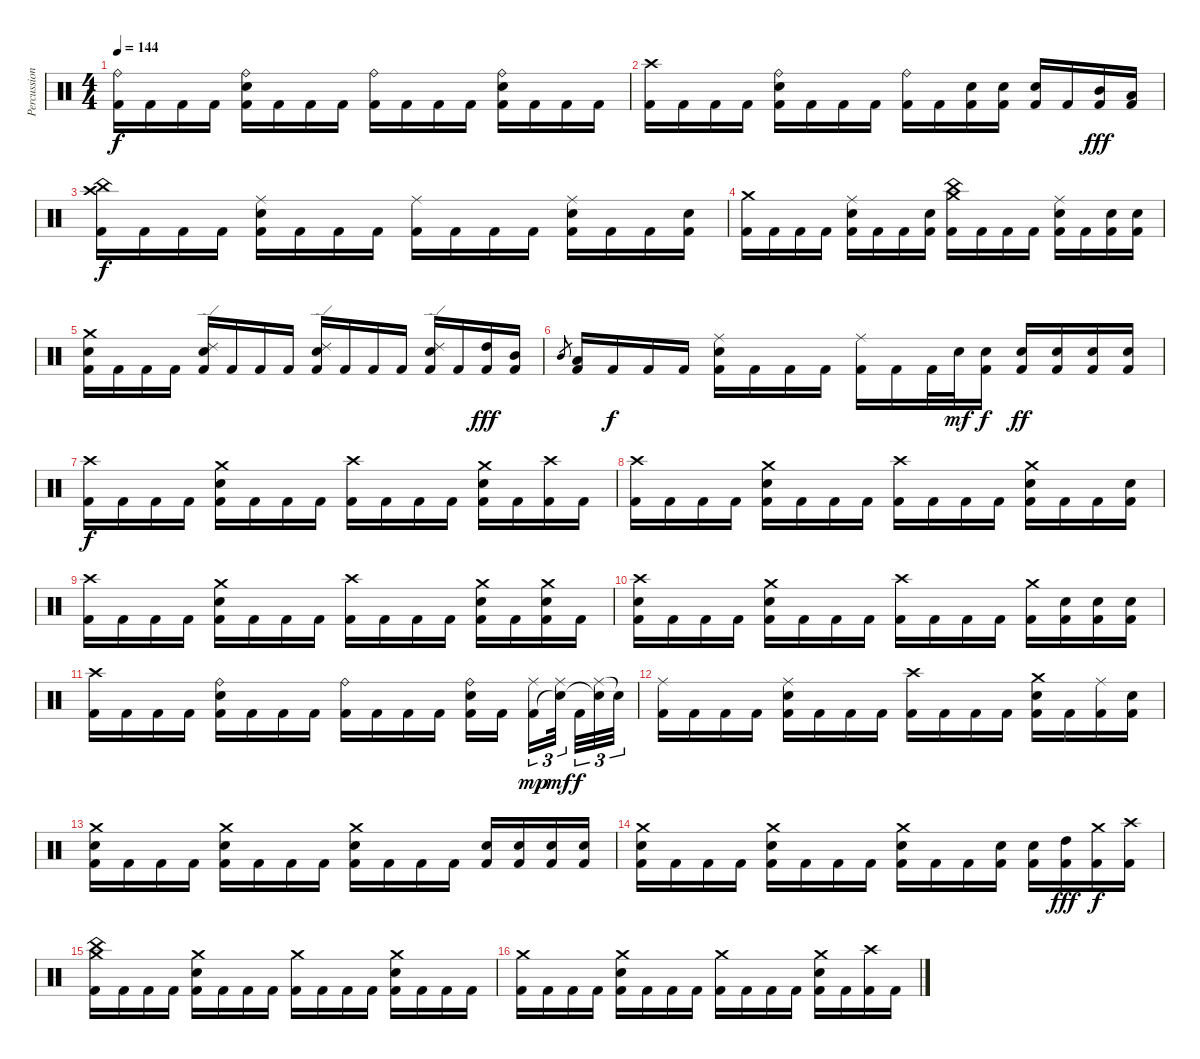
\track ("Percussion" "Percussion") {instrument percussion}
\staff {score}
\articulation defaults
\ts (4 4)
\tempo 144
\clef neutral
\ks c
("Ride (bell)" "Kick (hit) 2").16{dy f} "Kick (hit) 2".16 "Kick (hit) 2".16 "Kick (hit) 2".16 ("Ride (bell)" "Snare (hit) 2" "Kick (hit) 2").16 "Kick (hit) 2".16 "Kick (hit) 2".16 "Kick (hit) 2".16 ("Ride (bell)" "Kick (hit) 2").16 "Kick (hit) 2".16 "Kick (hit) 2".16 "Kick (hit) 2".16 ("Ride (bell)" "Snare (hit) 2" "Kick (hit) 2").16 "Kick (hit) 2".16 "Kick (hit) 2".16 "Kick (hit) 2".16 |
("Crash high (hit)" "Kick (hit) 2").16 "Kick (hit) 2".16 "Kick (hit) 2".16 "Kick (hit) 2".16 ("Ride (bell)" "Snare (hit) 2" "Kick (hit) 2").16 "Kick (hit) 2".16 "Kick (hit) 2".16 "Kick (hit) 2".16 ("Ride (bell)" "Kick (hit) 2").16 "Kick (hit) 2".16 ("Snare (hit) 2" "Kick (hit) 2").16 ("Snare (hit) 2" "Kick (hit) 2").16 ("Snare (hit) 2" "Kick (hit) 2").16 "Kick (hit) 2".16 ("Mid Tom (hit)" "Kick (hit) 2").16{dy fff} ("Low Tom (hit)" "Kick (hit) 2").16 |
("Crash high (hit)" "China (hit)" "Kick (hit) 2").16{dy f} "Kick (hit) 2".16 "Kick (hit) 2".16 "Kick (hit) 2".16 ("Ride (middle)" "Snare (hit) 2" "Kick (hit) 2").16 "Kick (hit) 2".16 "Kick (hit) 2".16 "Kick (hit) 2".16 ("Ride (middle)" "Kick (hit) 2").16 "Kick (hit) 2".16 "Kick (hit) 2".16 "Kick (hit) 2".16 ("Ride (middle)" "Snare (hit) 2" "Kick (hit) 2").16 "Kick (hit) 2".16 "Kick (hit) 2".16 ("Snare (hit) 2" "Kick (hit) 2").16 |
("Crash medium (hit)" "Kick (hit) 2").16 "Kick (hit) 2".16 "Kick (hit) 2".16 "Kick (hit) 2".16 ("Ride (middle)" "Snare (hit) 2" "Kick (hit) 2").16 "Kick (hit) 2".16 "Kick (hit) 2".16 ("Snare (hit) 2" "Kick (hit) 2").16 ("Crash medium (hit)" "China (hit)" "Kick (hit) 2").16 "Kick (hit) 2".16 "Kick (hit) 2".16 "Kick (hit) 2".16 ("Ride (middle)" "Snare (hit) 2" "Kick (hit) 2").16 "Kick (hit) 2".16 ("Snare (hit) 2" "Kick (hit) 2").16 ("Snare (hit) 2" "Kick (hit) 2").16 |
("Crash medium (hit)" "Snare (hit) 2" "Kick (hit) 2").16 "Kick (hit) 2".16 "Kick (hit) 2".16 "Kick (hit) 2".16 ("Ride (edge) 2" "Snare (hit) 2" "Kick (hit) 2").16 "Kick (hit) 2".16 "Kick (hit) 2".16 "Kick (hit) 2".16 ("Ride (edge) 2" "Snare (hit) 2" "Kick (hit) 2").16 "Kick (hit) 2".16 "Kick (hit) 2".16 "Kick (hit) 2".16 ("Ride (edge) 2" "Snare (hit) 2" "Kick (hit) 2").16 "Kick (hit) 2".16 ("High Tom (hit)" "Kick (hit) 2").16{dy fff} ("Mid Tom (hit)" "Kick (hit) 2").16 |
"Mid Tom (hit)".8{gr} ("Low Tom (hit)" "Kick (hit) 2").16 "Kick (hit) 2".16{dy f} "Kick (hit) 2".16 "Kick (hit) 2".16 ("Ride (middle)" "Snare (hit) 2" "Kick (hit) 2").16 "Kick (hit) 2".16 "Kick (hit) 2".16 "Kick (hit) 2".16 ("Ride (middle)" "Kick (hit) 2").16 "Kick (hit) 2".16 "Kick (hit) 2".32 "Snare (hit) 2".32{dy mf} ("Snare (hit) 2" "Kick (hit) 2").16{dy f} ("Snare (hit) 2" "Kick (hit) 2").16{dy ff} ("Snare (hit) 2" "Kick (hit) 2").16 ("Snare (hit) 2" "Kick (hit) 2").16 ("Snare (hit) 2" "Kick (hit) 2").16 |
\section ("" "")
("Crash high (hit)" "Kick (hit) 2").16{dy f volume 9} "Kick (hit) 2".16 "Kick (hit) 2".16 "Kick (hit) 2".16 ("Crash medium (hit)" "Snare (hit) 2" "Kick (hit) 2").16 "Kick (hit) 2".16 "Kick (hit) 2".16 "Kick (hit) 2".16 ("Crash high (hit)" "Kick (hit) 2").16 "Kick (hit) 2".16 "Kick (hit) 2".16 "Kick (hit) 2".16 ("Crash medium (hit)" "Snare (hit) 2" "Kick (hit) 2").16 "Kick (hit) 2".16 ("Crash high (hit)" "Kick (hit) 2").16 "Kick (hit) 2".16 |
("Crash high (hit)" "Kick (hit) 2").16 "Kick (hit) 2".16 "Kick (hit) 2".16 "Kick (hit) 2".16 ("Crash medium (hit)" "Snare (hit) 2" "Kick (hit) 2").16 "Kick (hit) 2".16 "Kick (hit) 2".16 "Kick (hit) 2".16 ("Crash high (hit)" "Kick (hit) 2").16 "Kick (hit) 2".16 "Kick (hit) 2".16 "Kick (hit) 2".16 ("Crash medium (hit)" "Snare (hit) 2" "Kick (hit) 2").16 "Kick (hit) 2".16 "Kick (hit) 2".16 ("Snare (hit) 2" "Kick (hit) 2").16 |
("Crash high (hit)" "Kick (hit) 2").16 "Kick (hit) 2".16 "Kick (hit) 2".16 "Kick (hit) 2".16 ("Crash medium (hit)" "Snare (hit) 2" "Kick (hit) 2").16 "Kick (hit) 2".16 "Kick (hit) 2".16 "Kick (hit) 2".16 ("Crash high (hit)" "Kick (hit) 2").16 "Kick (hit) 2".16 "Kick (hit) 2".16 "Kick (hit) 2".16 ("Crash medium (hit)" "Snare (hit) 2" "Kick (hit) 2").16 "Kick (hit) 2".16 ("Crash medium (hit)" "Snare (hit) 2" "Kick (hit) 2").16 "Kick (hit) 2".16 |
("Crash high (hit)" "Snare (hit) 2" "Kick (hit) 2").16 "Kick (hit) 2".16 "Kick (hit) 2".16 "Kick (hit) 2".16 ("Crash medium (hit)" "Snare (hit) 2" "Kick (hit) 2").16 "Kick (hit) 2".16 "Kick (hit) 2".16 "Kick (hit) 2".16 ("Crash high (hit)" "Kick (hit) 2").16 "Kick (hit) 2".16 "Kick (hit) 2".16 "Kick (hit) 2".16 ("Crash medium (hit)" "Kick (hit) 2").16 ("Snare (hit) 2" "Kick (hit) 2").16 ("Snare (hit) 2" "Kick (hit) 2").16 ("Snare (hit) 2" "Kick (hit) 2").16 |
("Crash high (hit)" "Kick (hit) 2").16{volume 7} "Kick (hit) 2".16 "Kick (hit) 2".16 "Kick (hit) 2".16 ("Ride (bell)" "Snare (hit) 2" "Kick (hit) 2").16 "Kick (hit) 2".16 "Kick (hit) 2".16 "Kick (hit) 2".16 ("Ride (bell)" "Kick (hit) 2").16 "Kick (hit) 2".16 "Kick (hit) 2".16 "Kick (hit) 2".16 ("Ride (bell)" "Snare (hit) 2" "Kick (hit) 2").16 "Kick (hit) 2".16 ("Ride (middle)" "Kick (hit) 2").16{tu (3 2) dy mp} ("Ride (middle)" "Snare (hit)"{t}).32{tu (3 2) dy mf} "Kick (hit) 2".32{tu (3 2) dy f} ("Ride (middle)" "Snare (hit)"{t}).32{tu (3 2)} "Snare (hit)"{t}.32{tu (3 2)} |
("Ride (middle)" "Kick (hit) 2").16 "Kick (hit) 2".16 "Kick (hit) 2".16 "Kick (hit) 2".16 ("Ride (middle)" "Snare (hit) 2" "Kick (hit) 2").16 "Kick (hit) 2".16 "Kick (hit) 2".16 "Kick (hit) 2".16 ("Crash high (hit)" "Kick (hit) 2").16 "Kick (hit) 2".16 "Kick (hit) 2".16 "Kick (hit) 2".16 ("Crash medium (hit)" "Snare (hit) 2" "Kick (hit) 2").16 "Kick (hit) 2".16 ("Ride (middle)" "Kick (hit) 2").16 ("Snare (hit) 2" "Kick (hit) 2").16 |
("Crash medium (hit)" "Snare (hit) 2" "Kick (hit) 2").16 "Kick (hit) 2".16 "Kick (hit) 2".16 "Kick (hit) 2".16 ("Crash medium (hit)" "Snare (hit) 2" "Kick (hit) 2").16 "Kick (hit) 2".16 "Kick (hit) 2".16 "Kick (hit) 2".16 ("Crash medium (hit)" "Snare (hit) 2" "Kick (hit) 2").16 "Kick (hit) 2".16 "Kick (hit) 2".16 "Kick (hit) 2".16 ("Snare (hit) 2" "Kick (hit) 2").16 ("Snare (hit) 2" "Kick (hit) 2").16 ("Snare (hit) 2" "Kick (hit) 2").16 ("Snare (hit) 2" "Kick (hit) 2").16 |
("Crash medium (hit)" "Snare (hit) 2" "Kick (hit) 2").16 "Kick (hit) 2".16 "Kick (hit) 2".16 "Kick (hit) 2".16 ("Crash medium (hit)" "Snare (hit) 2" "Kick (hit) 2").16 "Kick (hit) 2".16 "Kick (hit) 2".16 "Kick (hit) 2".16 ("Crash medium (hit)" "Snare (hit) 2" "Kick (hit) 2").16 "Kick (hit) 2".16 "Kick (hit) 2".16 ("Snare (hit) 2" "Kick (hit) 2").16 ("Snare (hit) 2" "Kick (hit) 2").16 ("High Tom (hit)" "Kick (hit) 2").16{dy fff} ("Crash medium (hit)" "Kick (hit) 2").16{dy f} ("Crash high (hit)" "Kick (hit) 2").16 |
("Crash medium (hit)" "China (hit)" "Kick (hit) 2").16{volume 4} "Kick (hit) 2".16 "Kick (hit) 2".16 "Kick (hit) 2".16 ("Crash medium (hit)" "Snare (hit) 2" "Kick (hit) 2").16 "Kick (hit) 2".16 "Kick (hit) 2".16 "Kick (hit) 2".16 ("Crash medium (hit)" "Kick (hit) 2").16 "Kick (hit) 2".16 "Kick (hit) 2".16 "Kick (hit) 2".16 ("Crash medium (hit)" "Snare (hit) 2" "Kick (hit) 2").16 "Kick (hit) 2".16 "Kick (hit) 2".16 "Kick (hit) 2".16 |
("Crash medium (hit)" "Kick (hit) 2").16 "Kick (hit) 2".16 "Kick (hit) 2".16 "Kick (hit) 2".16 ("Crash medium (hit)" "Snare (hit) 2" "Kick (hit) 2").16 "Kick (hit) 2".16 "Kick (hit) 2".16 "Kick (hit) 2".16 ("Crash medium (hit)" "Kick (hit) 2").16 "Kick (hit) 2".16 "Kick (hit) 2".16 "Kick (hit) 2".16 ("Crash medium (hit)" "Snare (hit) 2" "Kick (hit) 2").16 "Kick (hit) 2".16 ("Crash high (hit)" "Kick (hit) 2").16 "Kick (hit) 2".16
